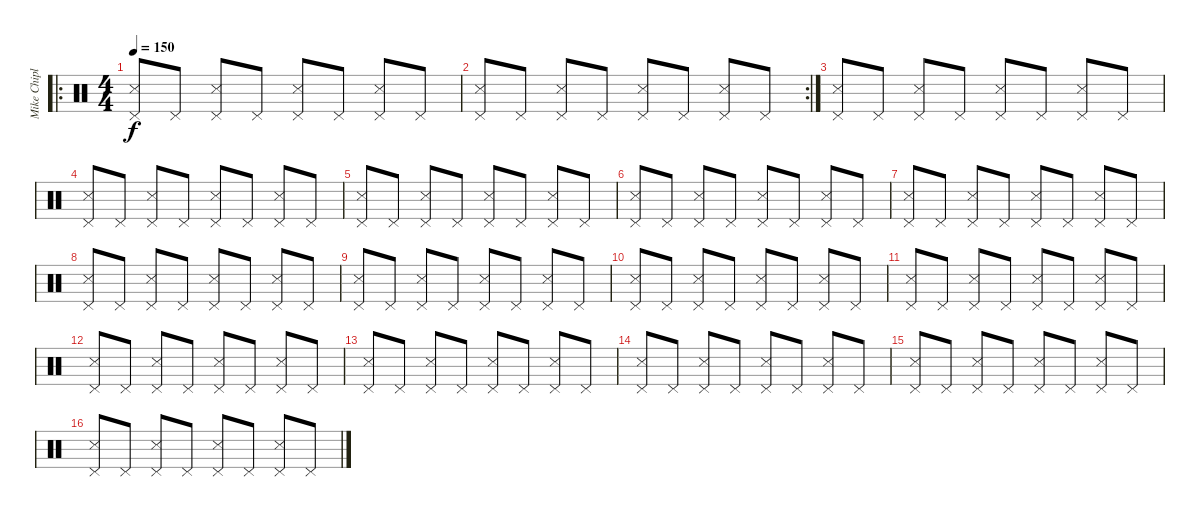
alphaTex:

\track ("Mike Chiplin" "Mike Chipl") {instrument percussion}
\staff {score}
\articulation defaults
\ro
\ts (4 4)
\tempo 150
\clef neutral
\ks c
("Pedal Hi-Hat (hit)" "Snare (side stick) 3").8{dy f} "Pedal Hi-Hat (hit)".8 ("Pedal Hi-Hat (hit)" "Snare (side stick) 3").8 "Pedal Hi-Hat (hit)".8 ("Pedal Hi-Hat (hit)" "Snare (side stick) 3").8 "Pedal Hi-Hat (hit)".8 ("Pedal Hi-Hat (hit)" "Snare (side stick) 3").8 "Pedal Hi-Hat (hit)".8 |
\rc 2
("Pedal Hi-Hat (hit)" "Snare (side stick) 3").8 "Pedal Hi-Hat (hit)".8 ("Pedal Hi-Hat (hit)" "Snare (side stick) 3").8 "Pedal Hi-Hat (hit)".8 ("Pedal Hi-Hat (hit)" "Snare (side stick) 3").8 "Pedal Hi-Hat (hit)".8 ("Pedal Hi-Hat (hit)" "Snare (side stick) 3").8 "Pedal Hi-Hat (hit)".8 |
("Pedal Hi-Hat (hit)" "Snare (side stick) 3").8 "Pedal Hi-Hat (hit)".8 ("Pedal Hi-Hat (hit)" "Snare (side stick) 3").8 "Pedal Hi-Hat (hit)".8 ("Pedal Hi-Hat (hit)" "Snare (side stick) 3").8 "Pedal Hi-Hat (hit)".8 ("Pedal Hi-Hat (hit)" "Snare (side stick) 3").8 "Pedal Hi-Hat (hit)".8 |
("Pedal Hi-Hat (hit)" "Snare (side stick) 3").8 "Pedal Hi-Hat (hit)".8 ("Pedal Hi-Hat (hit)" "Snare (side stick) 3").8 "Pedal Hi-Hat (hit)".8 ("Pedal Hi-Hat (hit)" "Snare (side stick) 3").8 "Pedal Hi-Hat (hit)".8 ("Pedal Hi-Hat (hit)" "Snare (side stick) 3").8 "Pedal Hi-Hat (hit)".8 |
("Pedal Hi-Hat (hit)" "Snare (side stick) 3").8 "Pedal Hi-Hat (hit)".8 ("Pedal Hi-Hat (hit)" "Snare (side stick) 3").8 "Pedal Hi-Hat (hit)".8 ("Pedal Hi-Hat (hit)" "Snare (side stick) 3").8 "Pedal Hi-Hat (hit)".8 ("Pedal Hi-Hat (hit)" "Snare (side stick) 3").8 "Pedal Hi-Hat (hit)".8 |
("Pedal Hi-Hat (hit)" "Snare (side stick) 3").8 "Pedal Hi-Hat (hit)".8 ("Pedal Hi-Hat (hit)" "Snare (side stick) 3").8 "Pedal Hi-Hat (hit)".8 ("Pedal Hi-Hat (hit)" "Snare (side stick) 3").8 "Pedal Hi-Hat (hit)".8 ("Pedal Hi-Hat (hit)" "Snare (side stick) 3").8 "Pedal Hi-Hat (hit)".8 |
("Pedal Hi-Hat (hit)" "Snare (side stick) 3").8 "Pedal Hi-Hat (hit)".8 ("Pedal Hi-Hat (hit)" "Snare (side stick) 3").8 "Pedal Hi-Hat (hit)".8 ("Pedal Hi-Hat (hit)" "Snare (side stick) 3").8 "Pedal Hi-Hat (hit)".8 ("Pedal Hi-Hat (hit)" "Snare (side stick) 3").8 "Pedal Hi-Hat (hit)".8 |
("Pedal Hi-Hat (hit)" "Snare (side stick) 3").8 "Pedal Hi-Hat (hit)".8 ("Pedal Hi-Hat (hit)" "Snare (side stick) 3").8 "Pedal Hi-Hat (hit)".8 ("Pedal Hi-Hat (hit)" "Snare (side stick) 3").8 "Pedal Hi-Hat (hit)".8 ("Pedal Hi-Hat (hit)" "Snare (side stick) 3").8 "Pedal Hi-Hat (hit)".8 |
("Pedal Hi-Hat (hit)" "Snare (side stick) 3").8 "Pedal Hi-Hat (hit)".8 ("Pedal Hi-Hat (hit)" "Snare (side stick) 3").8 "Pedal Hi-Hat (hit)".8 ("Pedal Hi-Hat (hit)" "Snare (side stick) 3").8 "Pedal Hi-Hat (hit)".8 ("Pedal Hi-Hat (hit)" "Snare (side stick) 3").8 "Pedal Hi-Hat (hit)".8 |
("Pedal Hi-Hat (hit)" "Snare (side stick) 3").8 "Pedal Hi-Hat (hit)".8 ("Pedal Hi-Hat (hit)" "Snare (side stick) 3").8 "Pedal Hi-Hat (hit)".8 ("Pedal Hi-Hat (hit)" "Snare (side stick) 3").8 "Pedal Hi-Hat (hit)".8 ("Pedal Hi-Hat (hit)" "Snare (side stick) 3").8 "Pedal Hi-Hat (hit)".8 |
("Pedal Hi-Hat (hit)" "Snare (side stick) 3").8 "Pedal Hi-Hat (hit)".8 ("Pedal Hi-Hat (hit)" "Snare (side stick) 3").8 "Pedal Hi-Hat (hit)".8 ("Pedal Hi-Hat (hit)" "Snare (side stick) 3").8 "Pedal Hi-Hat (hit)".8 ("Pedal Hi-Hat (hit)" "Snare (side stick) 3").8 "Pedal Hi-Hat (hit)".8 |
("Pedal Hi-Hat (hit)" "Snare (side stick) 3").8 "Pedal Hi-Hat (hit)".8 ("Pedal Hi-Hat (hit)" "Snare (side stick) 3").8 "Pedal Hi-Hat (hit)".8 ("Pedal Hi-Hat (hit)" "Snare (side stick) 3").8 "Pedal Hi-Hat (hit)".8 ("Pedal Hi-Hat (hit)" "Snare (side stick) 3").8 "Pedal Hi-Hat (hit)".8 |
("Pedal Hi-Hat (hit)" "Snare (side stick) 3").8 "Pedal Hi-Hat (hit)".8 ("Pedal Hi-Hat (hit)" "Snare (side stick) 3").8 "Pedal Hi-Hat (hit)".8 ("Pedal Hi-Hat (hit)" "Snare (side stick) 3").8 "Pedal Hi-Hat (hit)".8 ("Pedal Hi-Hat (hit)" "Snare (side stick) 3").8 "Pedal Hi-Hat (hit)".8 |
("Pedal Hi-Hat (hit)" "Snare (side stick) 3").8 "Pedal Hi-Hat (hit)".8 ("Pedal Hi-Hat (hit)" "Snare (side stick) 3").8 "Pedal Hi-Hat (hit)".8 ("Pedal Hi-Hat (hit)" "Snare (side stick) 3").8 "Pedal Hi-Hat (hit)".8 ("Pedal Hi-Hat (hit)" "Snare (side stick) 3").8 "Pedal Hi-Hat (hit)".8 |
("Pedal Hi-Hat (hit)" "Snare (side stick) 3").8 "Pedal Hi-Hat (hit)".8 ("Pedal Hi-Hat (hit)" "Snare (side stick) 3").8 "Pedal Hi-Hat (hit)".8 ("Pedal Hi-Hat (hit)" "Snare (side stick) 3").8 "Pedal Hi-Hat (hit)".8 ("Pedal Hi-Hat (hit)" "Snare (side stick) 3").8 "Pedal Hi-Hat (hit)".8 |
("Pedal Hi-Hat (hit)" "Snare (side stick) 3").8 "Pedal Hi-Hat (hit)".8 ("Pedal Hi-Hat (hit)" "Snare (side stick) 3").8 "Pedal Hi-Hat (hit)".8 ("Pedal Hi-Hat (hit)" "Snare (side stick) 3").8 "Pedal Hi-Hat (hit)".8 ("Pedal Hi-Hat (hit)" "Snare (side stick) 3").8 "Pedal Hi-Hat (hit)".8
